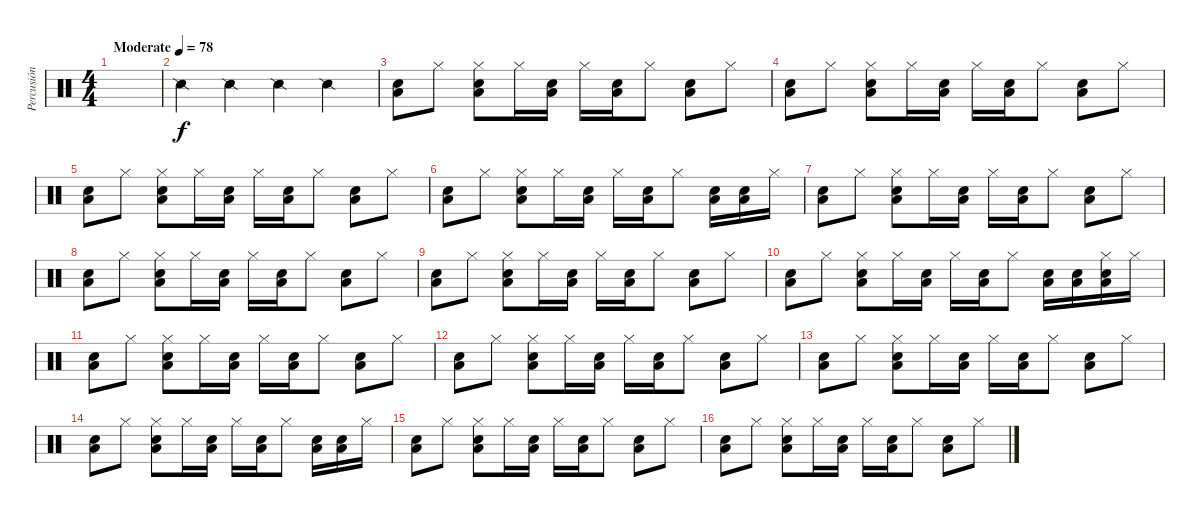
\track ("Percusión" "Percusión") {instrument percussion}
\staff {score}
\articulation defaults
\ts (4 4)
\tempo (78 "Moderate")
\clef neutral
\ks c
|
"Snare (side stick) 2".4 "Snare (side stick) 2".4 "Snare (side stick) 2".4 "Snare (side stick) 2".4 |
("Low Tom (hit)" "Snare (hit) 2").8 "Hi-Hat (closed)".8 ("Hi-Hat (closed)" "Low Tom (hit)" "Snare (hit) 2").8 "Hi-Hat (closed)".16 ("Low Tom (hit)" "Snare (hit) 2").16 "Hi-Hat (closed)".16 ("Low Tom (hit)" "Snare (hit) 2").16 "Hi-Hat (closed)".8 ("Low Tom (hit)" "Snare (hit) 2").8 "Hi-Hat (closed)".8 |
("Low Tom (hit)" "Snare (hit) 2").8 "Hi-Hat (closed)".8 ("Hi-Hat (closed)" "Low Tom (hit)" "Snare (hit) 2").8 "Hi-Hat (closed)".16 ("Low Tom (hit)" "Snare (hit) 2").16 "Hi-Hat (closed)".16 ("Low Tom (hit)" "Snare (hit) 2").16 "Hi-Hat (closed)".8 ("Low Tom (hit)" "Snare (hit) 2").8 "Hi-Hat (closed)".8 |
("Low Tom (hit)" "Snare (hit) 2").8 "Hi-Hat (closed)".8 ("Hi-Hat (closed)" "Low Tom (hit)" "Snare (hit) 2").8 "Hi-Hat (closed)".16 ("Low Tom (hit)" "Snare (hit) 2").16 "Hi-Hat (closed)".16 ("Low Tom (hit)" "Snare (hit) 2").16 "Hi-Hat (closed)".8 ("Low Tom (hit)" "Snare (hit) 2").8 "Hi-Hat (closed)".8 |
("Low Tom (hit)" "Snare (hit) 2").8 "Hi-Hat (closed)".8 ("Hi-Hat (closed)" "Low Tom (hit)" "Snare (hit) 2").8 "Hi-Hat (closed)".16 ("Low Tom (hit)" "Snare (hit) 2").16 "Hi-Hat (closed)".16 ("Low Tom (hit)" "Snare (hit) 2").16 "Hi-Hat (closed)".8 ("Low Tom (hit)" "Snare (hit) 2").16 ("Low Tom (hit)" "Snare (hit) 2").16 "Hi-Hat (closed)".16 |
("Low Tom (hit)" "Snare (hit) 2").8 "Hi-Hat (closed)".8 ("Hi-Hat (closed)" "Low Tom (hit)" "Snare (hit) 2").8 "Hi-Hat (closed)".16 ("Low Tom (hit)" "Snare (hit) 2").16 "Hi-Hat (closed)".16 ("Low Tom (hit)" "Snare (hit) 2").16 "Hi-Hat (closed)".8 ("Low Tom (hit)" "Snare (hit) 2").8 "Hi-Hat (closed)".8 |
("Low Tom (hit)" "Snare (hit) 2").8 "Hi-Hat (closed)".8 ("Hi-Hat (closed)" "Low Tom (hit)" "Snare (hit) 2").8 "Hi-Hat (closed)".16 ("Low Tom (hit)" "Snare (hit) 2").16 "Hi-Hat (closed)".16 ("Low Tom (hit)" "Snare (hit) 2").16 "Hi-Hat (closed)".8 ("Low Tom (hit)" "Snare (hit) 2").8 "Hi-Hat (closed)".8 |
("Low Tom (hit)" "Snare (hit) 2").8 "Hi-Hat (closed)".8 ("Hi-Hat (closed)" "Low Tom (hit)" "Snare (hit) 2").8 "Hi-Hat (closed)".16 ("Low Tom (hit)" "Snare (hit) 2").16 "Hi-Hat (closed)".16 ("Low Tom (hit)" "Snare (hit) 2").16 "Hi-Hat (closed)".8 ("Low Tom (hit)" "Snare (hit) 2").8 "Hi-Hat (closed)".8 |
("Low Tom (hit)" "Snare (hit) 2").8 "Hi-Hat (closed)".8 ("Hi-Hat (closed)" "Low Tom (hit)" "Snare (hit) 2").8 "Hi-Hat (closed)".16 ("Low Tom (hit)" "Snare (hit) 2").16 "Hi-Hat (closed)".16 ("Low Tom (hit)" "Snare (hit) 2").16 "Hi-Hat (closed)".8 ("Low Tom (hit)" "Snare (hit) 2").16 ("Low Tom (hit)" "Snare (hit) 2").16 ("Hi-Hat (closed)" "Low Tom (hit)" "Snare (hit) 2").16 "Hi-Hat (closed)".16 |
("Low Tom (hit)" "Snare (hit) 2").8 "Hi-Hat (closed)".8 ("Hi-Hat (closed)" "Low Tom (hit)" "Snare (hit) 2").8 "Hi-Hat (closed)".16 ("Low Tom (hit)" "Snare (hit) 2").16 "Hi-Hat (closed)".16 ("Low Tom (hit)" "Snare (hit) 2").16 "Hi-Hat (closed)".8 ("Low Tom (hit)" "Snare (hit) 2").8 "Hi-Hat (closed)".8 |
("Low Tom (hit)" "Snare (hit) 2").8 "Hi-Hat (closed)".8 ("Hi-Hat (closed)" "Low Tom (hit)" "Snare (hit) 2").8 "Hi-Hat (closed)".16 ("Low Tom (hit)" "Snare (hit) 2").16 "Hi-Hat (closed)".16 ("Low Tom (hit)" "Snare (hit) 2").16 "Hi-Hat (closed)".8 ("Low Tom (hit)" "Snare (hit) 2").8 "Hi-Hat (closed)".8 |
("Low Tom (hit)" "Snare (hit) 2").8 "Hi-Hat (closed)".8 ("Hi-Hat (closed)" "Low Tom (hit)" "Snare (hit) 2").8 "Hi-Hat (closed)".16 ("Low Tom (hit)" "Snare (hit) 2").16 "Hi-Hat (closed)".16 ("Low Tom (hit)" "Snare (hit) 2").16 "Hi-Hat (closed)".8 ("Low Tom (hit)" "Snare (hit) 2").8 "Hi-Hat (closed)".8 |
("Low Tom (hit)" "Snare (hit) 2").8 "Hi-Hat (closed)".8 ("Hi-Hat (closed)" "Low Tom (hit)" "Snare (hit) 2").8 "Hi-Hat (closed)".16 ("Low Tom (hit)" "Snare (hit) 2").16 "Hi-Hat (closed)".16 ("Low Tom (hit)" "Snare (hit) 2").16 "Hi-Hat (closed)".8 ("Low Tom (hit)" "Snare (hit) 2").16 ("Low Tom (hit)" "Snare (hit) 2").16 "Hi-Hat (closed)".16 |
("Low Tom (hit)" "Snare (hit) 2").8 "Hi-Hat (closed)".8 ("Hi-Hat (closed)" "Low Tom (hit)" "Snare (hit) 2").8 "Hi-Hat (closed)".16 ("Low Tom (hit)" "Snare (hit) 2").16 "Hi-Hat (closed)".16 ("Low Tom (hit)" "Snare (hit) 2").16 "Hi-Hat (closed)".8 ("Low Tom (hit)" "Snare (hit) 2").8 "Hi-Hat (closed)".8 |
("Low Tom (hit)" "Snare (hit) 2").8 "Hi-Hat (closed)".8 ("Hi-Hat (closed)" "Low Tom (hit)" "Snare (hit) 2").8 "Hi-Hat (closed)".16 ("Low Tom (hit)" "Snare (hit) 2").16 "Hi-Hat (closed)".16 ("Low Tom (hit)" "Snare (hit) 2").16 "Hi-Hat (closed)".8 ("Low Tom (hit)" "Snare (hit) 2").8 "Hi-Hat (closed)".8
